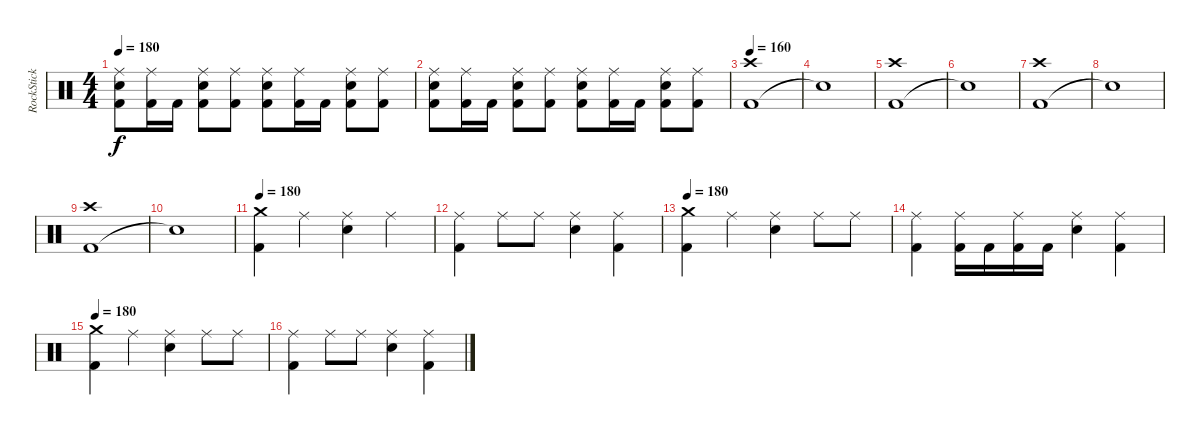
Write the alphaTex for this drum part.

\track ("RockStick" "RockStick") {instrument percussion}
\staff {score}
\articulation defaults
\ts (4 4)
\tempo 180
\clef neutral
\ks c
("Kick (hit) 2" "Electric Snare (hit)" "Ride (middle)").8{dy f} ("Kick (hit) 2" "Ride (middle)").16 "Kick (hit) 2".16 ("Kick (hit) 2" "Electric Snare (hit)" "Ride (middle)").8 ("Kick (hit) 2" "Ride (middle)").8 ("Kick (hit) 2" "Electric Snare (hit)" "Ride (middle)").8 ("Kick (hit) 2" "Ride (middle)").16 "Kick (hit) 2".16 ("Kick (hit) 2" "Electric Snare (hit)" "Ride (middle)").8 ("Kick (hit) 2" "Ride (middle)").8 |
("Kick (hit) 2" "Electric Snare (hit)" "Ride (middle)").8 ("Kick (hit) 2" "Ride (middle)").16 "Kick (hit) 2".16 ("Kick (hit) 2" "Electric Snare (hit)" "Ride (middle)").8 ("Kick (hit) 2" "Ride (middle)").8 ("Kick (hit) 2" "Electric Snare (hit)" "Ride (middle)").8 ("Kick (hit) 2" "Ride (middle)").16 "Kick (hit) 2".16 ("Kick (hit) 2" "Electric Snare (hit)" "Ride (middle)").8 ("Kick (hit) 2" "Ride (middle)").8 |
\tempo 160
("Kick (hit) 2" "Crash high (hit)").1 |
"Snare (hit)"{t}.1 |
("Kick (hit) 2" "Crash high (hit)").1 |
"Snare (hit)"{t}.1 |
("Kick (hit) 2" "Crash high (hit)").1 |
"Snare (hit)"{t}.1 |
("Kick (hit) 2" "Crash high (hit)").1 |
"Snare (hit)"{t}.1 |
\tempo 180
("Kick (hit) 2" "Crash medium (hit)").4 "Ride (middle)".4 ("Electric Snare (hit)" "Ride (middle)").4 "Ride (middle)".4 |
("Kick (hit) 2" "Ride (middle)").4 "Ride (middle)".8 "Ride (middle)".8 ("Electric Snare (hit)" "Ride (middle)").4 ("Kick (hit) 2" "Ride (middle)").4 |
\tempo 180
("Kick (hit) 2" "Crash medium (hit)").4 "Ride (middle)".4 ("Electric Snare (hit)" "Ride (middle)").4 "Ride (middle)".8 "Ride (middle)".8 |
("Kick (hit) 2" "Ride (middle)").4 ("Kick (hit) 2" "Ride (middle)").16 "Kick (hit) 2".16 ("Kick (hit) 2" "Ride (middle)").16 "Kick (hit) 2".16 ("Electric Snare (hit)" "Ride (middle)").4 ("Kick (hit) 2" "Ride (middle)").4 |
\tempo 180
("Kick (hit) 2" "Crash medium (hit)").4 "Ride (middle)".4 ("Electric Snare (hit)" "Ride (middle)").4 "Ride (middle)".8 "Ride (middle)".8 |
("Kick (hit) 2" "Ride (middle)").4 "Ride (middle)".8 "Ride (middle)".8 ("Electric Snare (hit)" "Ride (middle)").4 ("Kick (hit) 2" "Ride (middle)").4
